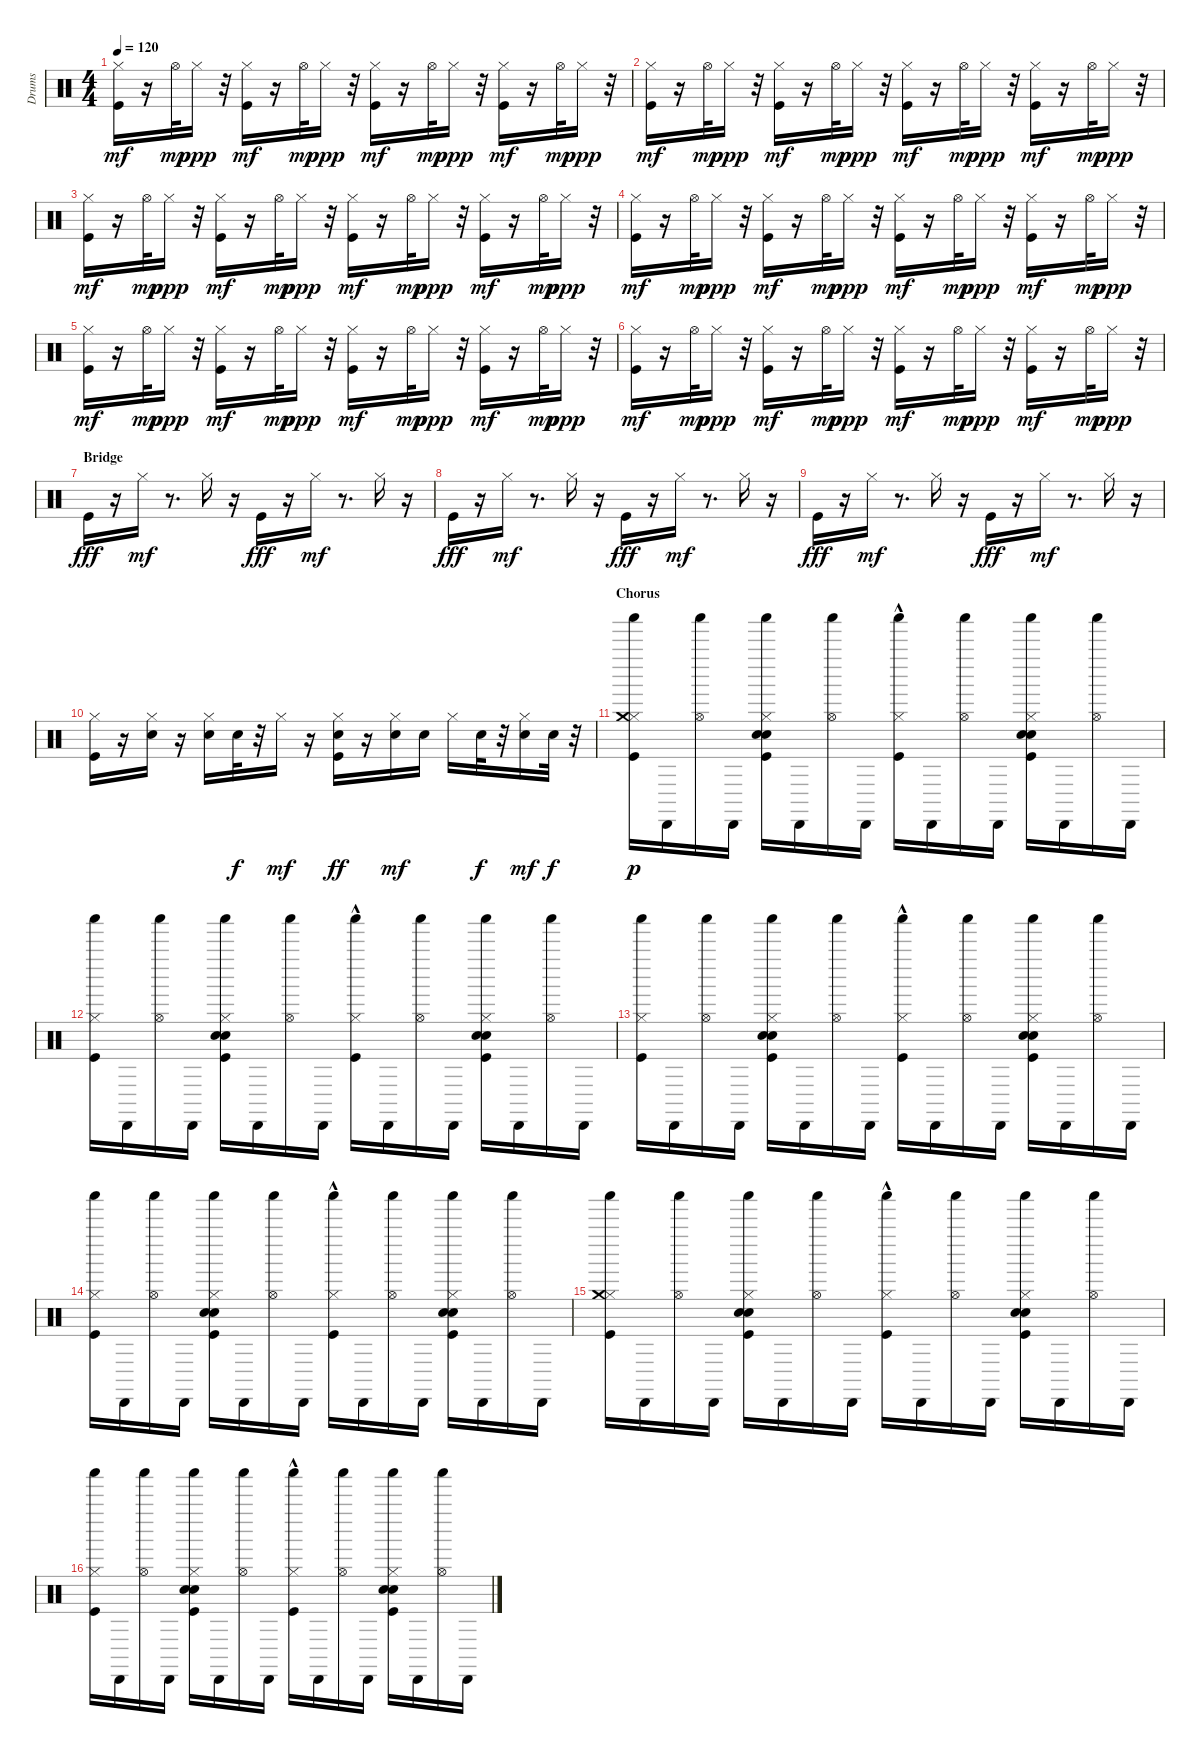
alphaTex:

\track ("Drums" "Drums") {instrument percussion}
\staff {score}
\articulation defaults
\ts (4 4)
\tempo 120
\clef neutral
\ks c
("Kick (hit)" "Hi-Hat (closed)").16{dy mf} r.16 "Hi-Hat (open)".32{dy mp} "Hi-Hat (closed)".16{dy ppp} r.32 ("Kick (hit)" "Hi-Hat (closed)").16{dy mf} r.16 "Hi-Hat (open)".32{dy mp} "Hi-Hat (closed)".16{dy ppp} r.32 ("Kick (hit)" "Hi-Hat (closed)").16{dy mf} r.16 "Hi-Hat (open)".32{dy mp} "Hi-Hat (closed)".16{dy ppp} r.32 ("Kick (hit)" "Hi-Hat (closed)").16{dy mf} r.16 "Hi-Hat (open)".32{dy mp} "Hi-Hat (closed)".16{dy ppp} r.32 |
("Kick (hit)" "Hi-Hat (closed)").16{dy mf} r.16 "Hi-Hat (open)".32{dy mp} "Hi-Hat (closed)".16{dy ppp} r.32 ("Kick (hit)" "Hi-Hat (closed)").16{dy mf} r.16 "Hi-Hat (open)".32{dy mp} "Hi-Hat (closed)".16{dy ppp} r.32 ("Kick (hit)" "Hi-Hat (closed)").16{dy mf} r.16 "Hi-Hat (open)".32{dy mp} "Hi-Hat (closed)".16{dy ppp} r.32 ("Kick (hit)" "Hi-Hat (closed)").16{dy mf} r.16 "Hi-Hat (open)".32{dy mp} "Hi-Hat (closed)".16{dy ppp} r.32 |
("Kick (hit)" "Hi-Hat (closed)").16{dy mf} r.16 "Hi-Hat (open)".32{dy mp} "Hi-Hat (closed)".16{dy ppp} r.32 ("Kick (hit)" "Hi-Hat (closed)").16{dy mf} r.16 "Hi-Hat (open)".32{dy mp} "Hi-Hat (closed)".16{dy ppp} r.32 ("Kick (hit)" "Hi-Hat (closed)").16{dy mf} r.16 "Hi-Hat (open)".32{dy mp} "Hi-Hat (closed)".16{dy ppp} r.32 ("Kick (hit)" "Hi-Hat (closed)").16{dy mf} r.16 "Hi-Hat (open)".32{dy mp} "Hi-Hat (closed)".16{dy ppp} r.32 |
("Kick (hit)" "Hi-Hat (closed)").16{dy mf} r.16 "Hi-Hat (open)".32{dy mp} "Hi-Hat (closed)".16{dy ppp} r.32 ("Kick (hit)" "Hi-Hat (closed)").16{dy mf} r.16 "Hi-Hat (open)".32{dy mp} "Hi-Hat (closed)".16{dy ppp} r.32 ("Kick (hit)" "Hi-Hat (closed)").16{dy mf} r.16 "Hi-Hat (open)".32{dy mp} "Hi-Hat (closed)".16{dy ppp} r.32 ("Kick (hit)" "Hi-Hat (closed)").16{dy mf} r.16 "Hi-Hat (open)".32{dy mp} "Hi-Hat (closed)".16{dy ppp} r.32 |
("Kick (hit)" "Hi-Hat (closed)").16{dy mf} r.16 "Hi-Hat (open)".32{dy mp} "Hi-Hat (closed)".16{dy ppp} r.32 ("Kick (hit)" "Hi-Hat (closed)").16{dy mf} r.16 "Hi-Hat (open)".32{dy mp} "Hi-Hat (closed)".16{dy ppp} r.32 ("Kick (hit)" "Hi-Hat (closed)").16{dy mf} r.16 "Hi-Hat (open)".32{dy mp} "Hi-Hat (closed)".16{dy ppp} r.32 ("Kick (hit)" "Hi-Hat (closed)").16{dy mf} r.16 "Hi-Hat (open)".32{dy mp} "Hi-Hat (closed)".16{dy ppp} r.32 |
("Kick (hit)" "Hi-Hat (closed)").16{dy mf} r.16 "Hi-Hat (open)".32{dy mp} "Hi-Hat (closed)".16{dy ppp} r.32 ("Kick (hit)" "Hi-Hat (closed)").16{dy mf} r.16 "Hi-Hat (open)".32{dy mp} "Hi-Hat (closed)".16{dy ppp} r.32 ("Kick (hit)" "Hi-Hat (closed)").16{dy mf} r.16 "Hi-Hat (open)".32{dy mp} "Hi-Hat (closed)".16{dy ppp} r.32 ("Kick (hit)" "Hi-Hat (closed)").16{dy mf} r.16 "Hi-Hat (open)".32{dy mp} "Hi-Hat (closed)".16{dy ppp} r.32 |
\section ("" "Bridge")
"Kick (hit)".16{dy fff} r.16 "Hi-Hat (closed)".16{dy mf} r.8{d} "Hi-Hat (closed)".16 r.16 "Kick (hit)".16{dy fff} r.16 "Hi-Hat (closed)".16{dy mf} r.8{d} "Hi-Hat (closed)".16 r.16 |
"Kick (hit)".16{dy fff} r.16 "Hi-Hat (closed)".16{dy mf} r.8{d} "Hi-Hat (closed)".16 r.16 "Kick (hit)".16{dy fff} r.16 "Hi-Hat (closed)".16{dy mf} r.8{d} "Hi-Hat (closed)".16 r.16 |
"Kick (hit)".16{dy fff} r.16 "Hi-Hat (closed)".16{dy mf} r.8{d} "Hi-Hat (closed)".16 r.16 "Kick (hit)".16{dy fff} r.16 "Hi-Hat (closed)".16{dy mf} r.8{d} "Hi-Hat (closed)".16 r.16 |
("Kick (hit)" "Hi-Hat (closed)").16 r.16 ("Snare (hit) 2" "Hi-Hat (closed)").16 r.16 ("Hi-Hat (closed)" "Snare (hit) 2").16 "Snare (hit) 2".32{dy f} r.32 "Hi-Hat (closed)".16{dy mf} r.16 ("Hi-Hat (closed)" "Kick (hit)" "Snare (hit) 2").16{dy ff} r.16 ("Snare (hit) 2" "Hi-Hat (closed)").16{dy mf} "Snare (hit) 2".16 "Hi-Hat (closed)".16 "Snare (hit) 2".32{dy f} r.32 ("Snare (hit) 2" "Hi-Hat (closed)").16{dy mf} "Snare (hit) 2".32{dy f} r.32 |
\section ("" "Chorus")
("Kick (hit)" "Hi-Hat (closed)" "Crash medium (hit)" "Shaker (hit)").16{dy p} "Cabasa (hit)".16 ("Hi-Hat (open)" "Shaker (hit)").16 "Cabasa (hit)".16 ("Kick (hit)" "Snare (hit) 2" "Electric Snare (hit)" "Hi-Hat (closed)" "Shaker (hit)").16 "Cabasa (hit)".16 ("Hi-Hat (open)" "Shaker (hit)").16 "Cabasa (hit)".16 ("Kick (hit)" "Hi-Hat (closed)" "Shaker (hit)"{hac}).16 "Cabasa (hit)".16 ("Hi-Hat (open)" "Shaker (hit)").16 "Cabasa (hit)".16 ("Kick (hit)" "Snare (hit) 2" "Electric Snare (hit)" "Hi-Hat (closed)" "Shaker (hit)").16 "Cabasa (hit)".16 ("Hi-Hat (open)" "Shaker (hit)").16 "Cabasa (hit)".16 |
("Kick (hit)" "Hi-Hat (closed)" "Shaker (hit)").16 "Cabasa (hit)".16 ("Hi-Hat (open)" "Shaker (hit)").16 "Cabasa (hit)".16 ("Kick (hit)" "Snare (hit) 2" "Electric Snare (hit)" "Hi-Hat (closed)" "Shaker (hit)").16 "Cabasa (hit)".16 ("Hi-Hat (open)" "Shaker (hit)").16 "Cabasa (hit)".16 ("Kick (hit)" "Hi-Hat (closed)" "Shaker (hit)"{hac}).16 "Cabasa (hit)".16 ("Hi-Hat (open)" "Shaker (hit)").16 "Cabasa (hit)".16 ("Kick (hit)" "Snare (hit) 2" "Electric Snare (hit)" "Hi-Hat (closed)" "Shaker (hit)").16 "Cabasa (hit)".16 ("Hi-Hat (open)" "Shaker (hit)").16 "Cabasa (hit)".16 |
("Kick (hit)" "Hi-Hat (closed)" "Shaker (hit)").16 "Cabasa (hit)".16 ("Hi-Hat (open)" "Shaker (hit)").16 "Cabasa (hit)".16 ("Kick (hit)" "Snare (hit) 2" "Electric Snare (hit)" "Hi-Hat (closed)" "Shaker (hit)").16 "Cabasa (hit)".16 ("Hi-Hat (open)" "Shaker (hit)").16 "Cabasa (hit)".16 ("Kick (hit)" "Hi-Hat (closed)" "Shaker (hit)"{hac}).16 "Cabasa (hit)".16 ("Hi-Hat (open)" "Shaker (hit)").16 "Cabasa (hit)".16 ("Kick (hit)" "Snare (hit) 2" "Electric Snare (hit)" "Hi-Hat (closed)" "Shaker (hit)").16 "Cabasa (hit)".16 ("Hi-Hat (open)" "Shaker (hit)").16 "Cabasa (hit)".16 |
("Kick (hit)" "Hi-Hat (closed)" "Shaker (hit)").16 "Cabasa (hit)".16 ("Hi-Hat (open)" "Shaker (hit)").16 "Cabasa (hit)".16 ("Kick (hit)" "Snare (hit) 2" "Electric Snare (hit)" "Hi-Hat (closed)" "Shaker (hit)").16 "Cabasa (hit)".16 ("Hi-Hat (open)" "Shaker (hit)").16 "Cabasa (hit)".16 ("Kick (hit)" "Hi-Hat (closed)" "Shaker (hit)"{hac}).16 "Cabasa (hit)".16 ("Hi-Hat (open)" "Shaker (hit)").16 "Cabasa (hit)".16 ("Kick (hit)" "Snare (hit) 2" "Electric Snare (hit)" "Hi-Hat (closed)" "Shaker (hit)").16 "Cabasa (hit)".16 ("Hi-Hat (open)" "Shaker (hit)").16 "Cabasa (hit)".16 |
("Kick (hit)" "Hi-Hat (closed)" "Crash medium (hit)" "Shaker (hit)").16 "Cabasa (hit)".16 ("Hi-Hat (open)" "Shaker (hit)").16 "Cabasa (hit)".16 ("Kick (hit)" "Snare (hit) 2" "Electric Snare (hit)" "Hi-Hat (closed)" "Shaker (hit)").16 "Cabasa (hit)".16 ("Hi-Hat (open)" "Shaker (hit)").16 "Cabasa (hit)".16 ("Kick (hit)" "Hi-Hat (closed)" "Shaker (hit)"{hac}).16 "Cabasa (hit)".16 ("Hi-Hat (open)" "Shaker (hit)").16 "Cabasa (hit)".16 ("Kick (hit)" "Snare (hit) 2" "Electric Snare (hit)" "Hi-Hat (closed)" "Shaker (hit)").16 "Cabasa (hit)".16 ("Hi-Hat (open)" "Shaker (hit)").16 "Cabasa (hit)".16 |
("Kick (hit)" "Hi-Hat (closed)" "Shaker (hit)").16 "Cabasa (hit)".16 ("Hi-Hat (open)" "Shaker (hit)").16 "Cabasa (hit)".16 ("Kick (hit)" "Snare (hit) 2" "Electric Snare (hit)" "Hi-Hat (closed)" "Shaker (hit)").16 "Cabasa (hit)".16 ("Hi-Hat (open)" "Shaker (hit)").16 "Cabasa (hit)".16 ("Kick (hit)" "Hi-Hat (closed)" "Shaker (hit)"{hac}).16 "Cabasa (hit)".16 ("Hi-Hat (open)" "Shaker (hit)").16 "Cabasa (hit)".16 ("Kick (hit)" "Snare (hit) 2" "Electric Snare (hit)" "Hi-Hat (closed)" "Shaker (hit)").16 "Cabasa (hit)".16 ("Hi-Hat (open)" "Shaker (hit)").16 "Cabasa (hit)".16
